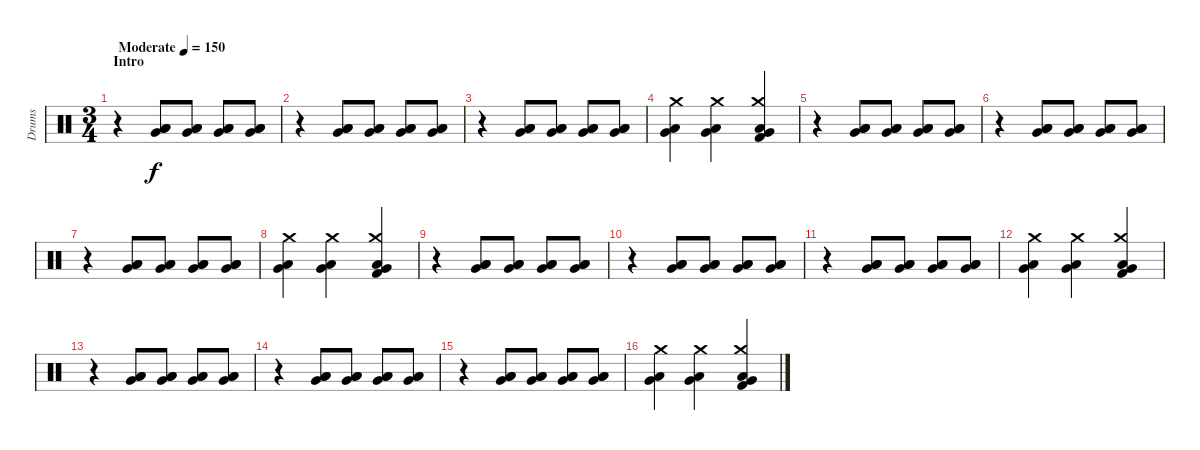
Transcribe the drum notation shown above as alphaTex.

\track ("Drums" "Drums") {instrument percussion}
\staff {score}
\articulation defaults
\ts (3 4)
\section ("" "Intro")
\tempo (150 "Moderate")
\clef neutral
\ks c
r.4{dy f} ("Low Tom (hit)" "Low Floor Tom (hit)" "Very Low Tom (hit)").8 ("Low Tom (hit)" "Low Floor Tom (hit)" "Very Low Tom (hit)").8 ("Low Tom (hit)" "Low Floor Tom (hit)" "Very Low Tom (hit)").8 ("Low Tom (hit)" "Low Floor Tom (hit)" "Very Low Tom (hit)").8 |
r.4 ("Low Tom (hit)" "Low Floor Tom (hit)" "Very Low Tom (hit)").8 ("Low Tom (hit)" "Low Floor Tom (hit)" "Very Low Tom (hit)").8 ("Low Tom (hit)" "Low Floor Tom (hit)" "Very Low Tom (hit)").8 ("Low Tom (hit)" "Low Floor Tom (hit)" "Very Low Tom (hit)").8 |
r.4 ("Low Tom (hit)" "Low Floor Tom (hit)" "Very Low Tom (hit)").8 ("Low Tom (hit)" "Low Floor Tom (hit)" "Very Low Tom (hit)").8 ("Low Tom (hit)" "Low Floor Tom (hit)" "Very Low Tom (hit)").8 ("Low Tom (hit)" "Low Floor Tom (hit)" "Very Low Tom (hit)").8 |
("Crash medium (hit)" "Low Tom (hit)" "Very Low Tom (hit)").4 ("Crash medium (hit)" "Very Low Tom (hit)" "Low Floor Tom (hit)").4 ("Crash medium (hit)" "Very Low Tom (hit)" "Low Floor Tom (hit)" "Kick (hit) 2").4 |
r.4 ("Low Tom (hit)" "Low Floor Tom (hit)" "Very Low Tom (hit)").8 ("Low Tom (hit)" "Low Floor Tom (hit)" "Very Low Tom (hit)").8 ("Low Tom (hit)" "Low Floor Tom (hit)" "Very Low Tom (hit)").8 ("Low Tom (hit)" "Low Floor Tom (hit)" "Very Low Tom (hit)").8 |
r.4 ("Low Tom (hit)" "Low Floor Tom (hit)" "Very Low Tom (hit)").8 ("Low Tom (hit)" "Low Floor Tom (hit)" "Very Low Tom (hit)").8 ("Low Tom (hit)" "Low Floor Tom (hit)" "Very Low Tom (hit)").8 ("Low Tom (hit)" "Low Floor Tom (hit)" "Very Low Tom (hit)").8 |
r.4 ("Low Tom (hit)" "Low Floor Tom (hit)" "Very Low Tom (hit)").8 ("Low Tom (hit)" "Low Floor Tom (hit)" "Very Low Tom (hit)").8 ("Low Tom (hit)" "Low Floor Tom (hit)" "Very Low Tom (hit)").8 ("Low Tom (hit)" "Low Floor Tom (hit)" "Very Low Tom (hit)").8 |
("Crash medium (hit)" "Low Tom (hit)" "Very Low Tom (hit)").4 ("Crash medium (hit)" "Very Low Tom (hit)" "Low Floor Tom (hit)").4 ("Crash medium (hit)" "Very Low Tom (hit)" "Low Floor Tom (hit)" "Kick (hit) 2").4 |
r.4 ("Low Tom (hit)" "Low Floor Tom (hit)" "Very Low Tom (hit)").8 ("Low Tom (hit)" "Low Floor Tom (hit)" "Very Low Tom (hit)").8 ("Low Tom (hit)" "Low Floor Tom (hit)" "Very Low Tom (hit)").8 ("Low Tom (hit)" "Low Floor Tom (hit)" "Very Low Tom (hit)").8 |
r.4 ("Low Tom (hit)" "Low Floor Tom (hit)" "Very Low Tom (hit)").8 ("Low Tom (hit)" "Low Floor Tom (hit)" "Very Low Tom (hit)").8 ("Low Tom (hit)" "Low Floor Tom (hit)" "Very Low Tom (hit)").8 ("Low Tom (hit)" "Low Floor Tom (hit)" "Very Low Tom (hit)").8 |
r.4 ("Low Tom (hit)" "Low Floor Tom (hit)" "Very Low Tom (hit)").8 ("Low Tom (hit)" "Low Floor Tom (hit)" "Very Low Tom (hit)").8 ("Low Tom (hit)" "Low Floor Tom (hit)" "Very Low Tom (hit)").8 ("Low Tom (hit)" "Low Floor Tom (hit)" "Very Low Tom (hit)").8 |
("Crash medium (hit)" "Low Tom (hit)" "Very Low Tom (hit)").4 ("Crash medium (hit)" "Very Low Tom (hit)" "Low Floor Tom (hit)").4 ("Crash medium (hit)" "Very Low Tom (hit)" "Low Floor Tom (hit)" "Kick (hit) 2").4 |
r.4 ("Low Tom (hit)" "Low Floor Tom (hit)" "Very Low Tom (hit)").8 ("Low Tom (hit)" "Low Floor Tom (hit)" "Very Low Tom (hit)").8 ("Low Tom (hit)" "Low Floor Tom (hit)" "Very Low Tom (hit)").8 ("Low Tom (hit)" "Low Floor Tom (hit)" "Very Low Tom (hit)").8 |
r.4 ("Low Tom (hit)" "Low Floor Tom (hit)" "Very Low Tom (hit)").8 ("Low Tom (hit)" "Low Floor Tom (hit)" "Very Low Tom (hit)").8 ("Low Tom (hit)" "Low Floor Tom (hit)" "Very Low Tom (hit)").8 ("Low Tom (hit)" "Low Floor Tom (hit)" "Very Low Tom (hit)").8 |
r.4 ("Low Tom (hit)" "Low Floor Tom (hit)" "Very Low Tom (hit)").8 ("Low Tom (hit)" "Low Floor Tom (hit)" "Very Low Tom (hit)").8 ("Low Tom (hit)" "Low Floor Tom (hit)" "Very Low Tom (hit)").8 ("Low Tom (hit)" "Low Floor Tom (hit)" "Very Low Tom (hit)").8 |
("Crash medium (hit)" "Low Tom (hit)" "Very Low Tom (hit)").4 ("Crash medium (hit)" "Very Low Tom (hit)" "Low Floor Tom (hit)").4 ("Crash medium (hit)" "Very Low Tom (hit)" "Low Floor Tom (hit)" "Kick (hit) 2").4
